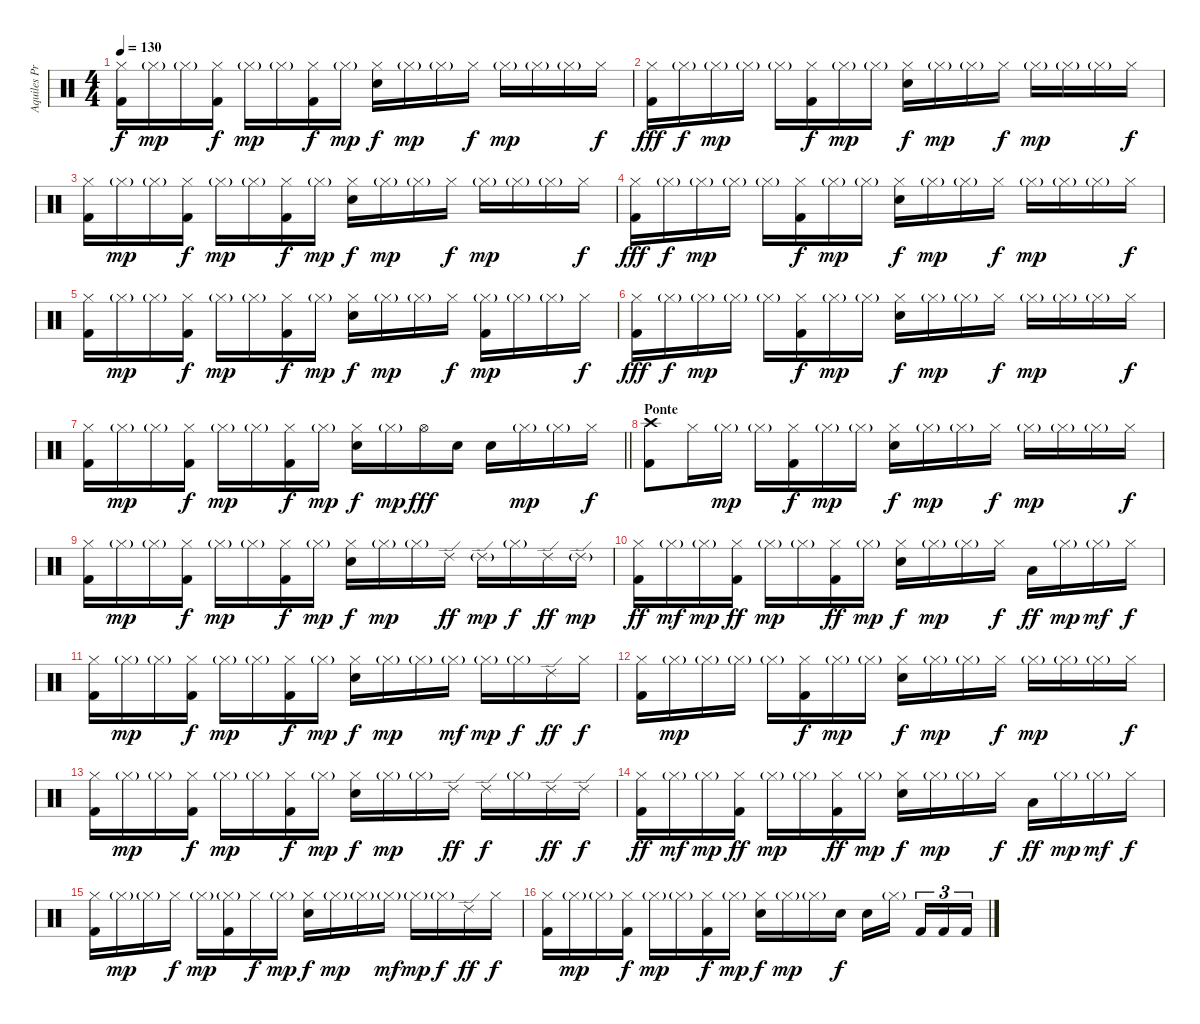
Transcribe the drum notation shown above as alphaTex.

\track ("Aquiles Priester" "Aquiles Pr") {instrument percussion}
\staff {score}
\articulation defaults
\ts (4 4)
\tempo 130
\clef neutral
\ks c
("Hi-Hat (closed)" "Kick (hit) 2").16{dy f} "Hi-Hat (closed)"{g}.16{dy mp} "Hi-Hat (closed)"{g}.16 ("Hi-Hat (closed)" "Kick (hit) 2").16{dy f} "Hi-Hat (closed)"{g}.16{dy mp} "Hi-Hat (closed)"{g}.16 ("Hi-Hat (closed)" "Kick (hit) 2").16{dy f} "Hi-Hat (closed)"{g}.16{dy mp} ("Hi-Hat (closed)" "Electric Snare (hit)").16{dy f} "Hi-Hat (closed)"{g}.16{dy mp} "Hi-Hat (closed)"{g}.16 "Hi-Hat (closed)".16{dy f} "Hi-Hat (closed)"{g}.16{dy mp} "Hi-Hat (closed)"{g}.16 "Hi-Hat (closed)"{g}.16 "Hi-Hat (closed)".16{dy f} |
("Hi-Hat (closed)" "Kick (hit) 2").16{dy fff} "Hi-Hat (closed)"{g}.16{dy f} "Hi-Hat (closed)"{g}.16{dy mp} "Hi-Hat (closed)"{g}.16 "Hi-Hat (closed)"{g}.16 ("Hi-Hat (closed)" "Kick (hit) 2").16{dy f} "Hi-Hat (closed)"{g}.16{dy mp} "Hi-Hat (closed)"{g}.16 ("Hi-Hat (closed)" "Electric Snare (hit)").16{dy f} "Hi-Hat (closed)"{g}.16{dy mp} "Hi-Hat (closed)"{g}.16 "Hi-Hat (closed)".16{dy f} "Hi-Hat (closed)"{g}.16{dy mp} "Hi-Hat (closed)"{g}.16 "Hi-Hat (closed)"{g}.16 "Hi-Hat (closed)".16{dy f} |
("Hi-Hat (closed)" "Kick (hit) 2").16 "Hi-Hat (closed)"{g}.16{dy mp} "Hi-Hat (closed)"{g}.16 ("Hi-Hat (closed)" "Kick (hit) 2").16{dy f} "Hi-Hat (closed)"{g}.16{dy mp} "Hi-Hat (closed)"{g}.16 ("Hi-Hat (closed)" "Kick (hit) 2").16{dy f} "Hi-Hat (closed)"{g}.16{dy mp} ("Hi-Hat (closed)" "Electric Snare (hit)").16{dy f} "Hi-Hat (closed)"{g}.16{dy mp} "Hi-Hat (closed)"{g}.16 "Hi-Hat (closed)".16{dy f} "Hi-Hat (closed)"{g}.16{dy mp} "Hi-Hat (closed)"{g}.16 "Hi-Hat (closed)"{g}.16 "Hi-Hat (closed)".16{dy f} |
("Hi-Hat (closed)" "Kick (hit) 2").16{dy fff} "Hi-Hat (closed)"{g}.16{dy f} "Hi-Hat (closed)"{g}.16{dy mp} "Hi-Hat (closed)"{g}.16 "Hi-Hat (closed)"{g}.16 ("Hi-Hat (closed)" "Kick (hit) 2").16{dy f} "Hi-Hat (closed)"{g}.16{dy mp} "Hi-Hat (closed)"{g}.16 ("Hi-Hat (closed)" "Electric Snare (hit)").16{dy f} "Hi-Hat (closed)"{g}.16{dy mp} "Hi-Hat (closed)"{g}.16 "Hi-Hat (closed)".16{dy f} "Hi-Hat (closed)"{g}.16{dy mp} "Hi-Hat (closed)"{g}.16 "Hi-Hat (closed)"{g}.16 "Hi-Hat (closed)".16{dy f} |
("Hi-Hat (closed)" "Kick (hit) 2").16 "Hi-Hat (closed)"{g}.16{dy mp} "Hi-Hat (closed)"{g}.16 ("Hi-Hat (closed)" "Kick (hit) 2").16{dy f} "Hi-Hat (closed)"{g}.16{dy mp} "Hi-Hat (closed)"{g}.16 ("Hi-Hat (closed)" "Kick (hit) 2").16{dy f} "Hi-Hat (closed)"{g}.16{dy mp} ("Hi-Hat (closed)" "Electric Snare (hit)").16{dy f} "Hi-Hat (closed)"{g}.16{dy mp} "Hi-Hat (closed)"{g}.16 "Hi-Hat (closed)".16{dy f} ("Hi-Hat (closed)"{g} "Kick (hit) 2").16{dy mp} "Hi-Hat (closed)"{g}.16 "Hi-Hat (closed)"{g}.16 "Hi-Hat (closed)".16{dy f} |
("Hi-Hat (closed)" "Kick (hit) 2").16{dy fff} "Hi-Hat (closed)"{g}.16{dy f} "Hi-Hat (closed)"{g}.16{dy mp} "Hi-Hat (closed)"{g}.16 "Hi-Hat (closed)"{g}.16 ("Hi-Hat (closed)" "Kick (hit) 2").16{dy f} "Hi-Hat (closed)"{g}.16{dy mp} "Hi-Hat (closed)"{g}.16 ("Hi-Hat (closed)" "Electric Snare (hit)").16{dy f} "Hi-Hat (closed)"{g}.16{dy mp} "Hi-Hat (closed)"{g}.16 "Hi-Hat (closed)".16{dy f} "Hi-Hat (closed)"{g}.16{dy mp} "Hi-Hat (closed)"{g}.16 "Hi-Hat (closed)"{g}.16 "Hi-Hat (closed)".16{dy f} |
\barLineRight lightlight
("Hi-Hat (closed)" "Kick (hit) 2").16 "Hi-Hat (closed)"{g}.16{dy mp} "Hi-Hat (closed)"{g}.16 ("Hi-Hat (closed)" "Kick (hit) 2").16{dy f} "Hi-Hat (closed)"{g}.16{dy mp} "Hi-Hat (closed)"{g}.16 ("Hi-Hat (closed)" "Kick (hit) 2").16{dy f} "Hi-Hat (closed)"{g}.16{dy mp} ("Hi-Hat (closed)" "Electric Snare (hit)").16{dy f} "Hi-Hat (closed)"{g}.16{dy mp} "Hi-Hat (open)".16{dy fff} "Electric Snare (hit)".16 "Electric Snare (hit)".16 "Hi-Hat (closed)"{g}.16{dy mp} "Hi-Hat (closed)"{g}.16 "Hi-Hat (closed)".16{dy f} |
\section ("" "Ponte")
("Crash high (hit)" "Kick (hit) 2").8 "Hi-Hat (closed)".16 "Hi-Hat (closed)"{g}.16{dy mp} "Hi-Hat (closed)"{g}.16 ("Hi-Hat (closed)" "Kick (hit) 2").16{dy f} "Hi-Hat (closed)"{g}.16{dy mp} "Hi-Hat (closed)"{g}.16 ("Hi-Hat (closed)" "Electric Snare (hit)").16{dy f} "Hi-Hat (closed)"{g}.16{dy mp} "Hi-Hat (closed)"{g}.16 "Hi-Hat (closed)".16{dy f} "Hi-Hat (closed)"{g}.16{dy mp} "Hi-Hat (closed)"{g}.16 "Hi-Hat (closed)"{g}.16 "Hi-Hat (closed)".16{dy f} |
("Hi-Hat (closed)" "Kick (hit) 2").16 "Hi-Hat (closed)"{g}.16{dy mp} "Hi-Hat (closed)"{g}.16 ("Hi-Hat (closed)" "Kick (hit) 2").16{dy f} "Hi-Hat (closed)"{g}.16{dy mp} "Hi-Hat (closed)"{g}.16 ("Hi-Hat (closed)" "Kick (hit) 2").16{dy f} "Hi-Hat (closed)"{g}.16{dy mp} ("Hi-Hat (closed)" "Electric Snare (hit)").16{dy f} "Hi-Hat (closed)"{g}.16{dy mp} "Hi-Hat (closed)"{g}.16 "Ride (edge) 2".16{dy ff} "Ride (edge) 2"{g}.16{dy mp} "Hi-Hat (closed)"{g}.16{dy f} "Ride (edge) 2".16{dy ff} "Ride (edge) 2"{g}.16{dy mp} |
("Hi-Hat (closed)" "Kick (hit) 2").16{dy ff} "Hi-Hat (closed)"{g}.16{dy mf} "Hi-Hat (closed)"{g}.16{dy mp} ("Hi-Hat (closed)" "Kick (hit) 2").16{dy ff} "Hi-Hat (closed)"{g}.16{dy mp} "Hi-Hat (closed)"{g}.16 ("Hi-Hat (closed)" "Kick (hit) 2").16{dy ff} "Hi-Hat (closed)"{g}.16{dy mp} ("Hi-Hat (closed)" "Electric Snare (hit)").16{dy f} "Hi-Hat (closed)"{g}.16{dy mp} "Hi-Hat (closed)"{g}.16 "Hi-Hat (closed)".16{dy f} "Low Tom (hit)".16{dy ff} "Hi-Hat (closed)"{g}.16{dy mp} "Hi-Hat (closed)"{g}.16{dy mf} "Hi-Hat (closed)".16{dy f} |
("Hi-Hat (closed)" "Kick (hit) 2").16 "Hi-Hat (closed)"{g}.16{dy mp} "Hi-Hat (closed)"{g}.16 ("Hi-Hat (closed)" "Kick (hit) 2").16{dy f} "Hi-Hat (closed)"{g}.16{dy mp} "Hi-Hat (closed)"{g}.16 ("Hi-Hat (closed)" "Kick (hit) 2").16{dy f} "Hi-Hat (closed)"{g}.16{dy mp} ("Hi-Hat (closed)" "Electric Snare (hit)").16{dy f} "Hi-Hat (closed)"{g}.16{dy mp} "Hi-Hat (closed)"{g}.16 "Hi-Hat (closed)"{g}.16{dy mf} "Hi-Hat (closed)"{g}.16{dy mp} "Hi-Hat (closed)"{g}.16{dy f} "Ride (edge) 2".16{dy ff} "Hi-Hat (closed)".16{dy f} |
("Hi-Hat (closed)" "Kick (hit) 2").16 "Hi-Hat (closed)"{g}.16{dy mp} "Hi-Hat (closed)"{g}.16 "Hi-Hat (closed)"{g}.16 "Hi-Hat (closed)"{g}.16 ("Hi-Hat (closed)" "Kick (hit) 2").16{dy f} "Hi-Hat (closed)"{g}.16{dy mp} "Hi-Hat (closed)"{g}.16 ("Hi-Hat (closed)" "Electric Snare (hit)").16{dy f} "Hi-Hat (closed)"{g}.16{dy mp} "Hi-Hat (closed)"{g}.16 "Hi-Hat (closed)".16{dy f} "Hi-Hat (closed)"{g}.16{dy mp} "Hi-Hat (closed)"{g}.16 "Hi-Hat (closed)"{g}.16 "Hi-Hat (closed)".16{dy f} |
("Hi-Hat (closed)" "Kick (hit) 2").16 "Hi-Hat (closed)"{g}.16{dy mp} "Hi-Hat (closed)"{g}.16 ("Hi-Hat (closed)" "Kick (hit) 2").16{dy f} "Hi-Hat (closed)"{g}.16{dy mp} "Hi-Hat (closed)"{g}.16 ("Hi-Hat (closed)" "Kick (hit) 2").16{dy f} "Hi-Hat (closed)"{g}.16{dy mp} ("Hi-Hat (closed)" "Electric Snare (hit)").16{dy f} "Hi-Hat (closed)"{g}.16{dy mp} "Hi-Hat (closed)"{g}.16 "Ride (edge) 2".16{dy ff} "Ride (edge) 2".16{dy f} "Hi-Hat (closed)"{g}.16 "Ride (edge) 2".16{dy ff} "Ride (edge) 2".16{dy f} |
("Hi-Hat (closed)" "Kick (hit) 2").16{dy ff} "Hi-Hat (closed)"{g}.16{dy mf} "Hi-Hat (closed)"{g}.16{dy mp} ("Hi-Hat (closed)" "Kick (hit) 2").16{dy ff} "Hi-Hat (closed)"{g}.16{dy mp} "Hi-Hat (closed)"{g}.16 ("Hi-Hat (closed)" "Kick (hit) 2").16{dy ff} "Hi-Hat (closed)"{g}.16{dy mp} ("Hi-Hat (closed)" "Electric Snare (hit)").16{dy f} "Hi-Hat (closed)"{g}.16{dy mp} "Hi-Hat (closed)"{g}.16 "Hi-Hat (closed)".16{dy f} "Low Tom (hit)".16{dy ff} "Hi-Hat (closed)"{g}.16{dy mp} "Hi-Hat (closed)"{g}.16{dy mf} "Hi-Hat (closed)".16{dy f} |
("Hi-Hat (closed)" "Kick (hit) 2").16 "Hi-Hat (closed)"{g}.16{dy mp} "Hi-Hat (closed)"{g}.16 "Hi-Hat (closed)".16{dy f} "Hi-Hat (closed)"{g}.16{dy mp} ("Hi-Hat (closed)"{g} "Kick (hit) 2").16 "Hi-Hat (closed)".16{dy f} "Hi-Hat (closed)"{g}.16{dy mp} ("Hi-Hat (closed)" "Electric Snare (hit)").16{dy f} "Hi-Hat (closed)"{g}.16{dy mp} "Hi-Hat (closed)"{g}.16 "Hi-Hat (closed)"{g}.16{dy mf} "Hi-Hat (closed)"{g}.16{dy mp} "Hi-Hat (closed)"{g}.16{dy f} "Ride (edge) 2".16{dy ff} "Hi-Hat (closed)".16{dy f} |
("Hi-Hat (closed)" "Kick (hit) 2").16 "Hi-Hat (closed)"{g}.16{dy mp} "Hi-Hat (closed)"{g}.16 ("Hi-Hat (closed)" "Kick (hit) 2").16{dy f} "Hi-Hat (closed)"{g}.16{dy mp} "Hi-Hat (closed)"{g}.16 ("Hi-Hat (closed)" "Kick (hit) 2").16{dy f} "Hi-Hat (closed)"{g}.16{dy mp} ("Hi-Hat (closed)" "Electric Snare (hit)").16{dy f} "Hi-Hat (closed)"{g}.16{dy mp} "Hi-Hat (closed)"{g}.16 "Electric Snare (hit)".16{dy f} "Electric Snare (hit)".16 "Hi-Hat (closed)"{g}.16{beam splitsecondary} "Kick (hit) 2".16{tu (3 2)} "Kick (hit) 2".16{tu (3 2)} "Kick (hit) 2".16{tu (3 2)}
